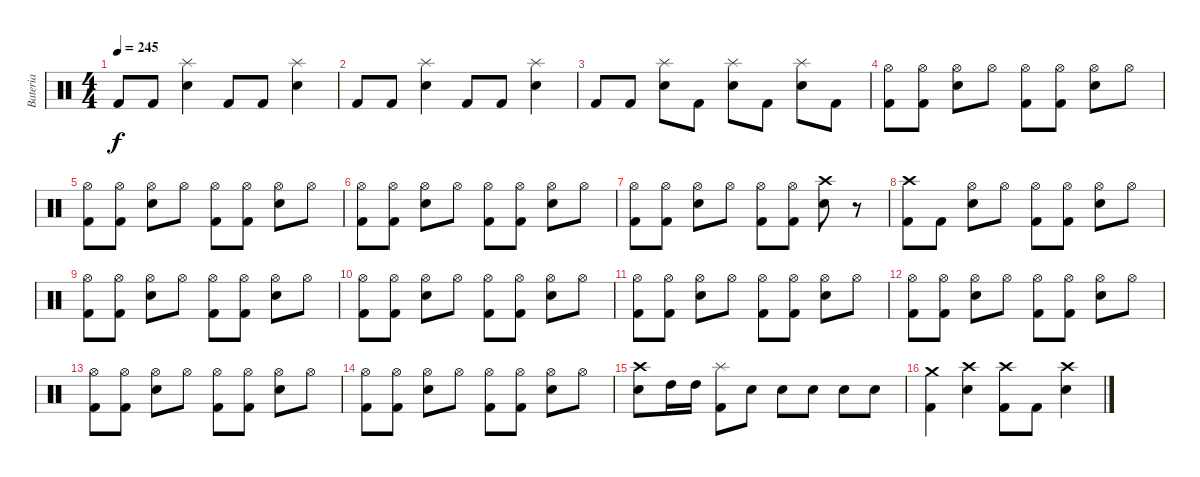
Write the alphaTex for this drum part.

\track ("Bateria" "Bateria") {instrument percussion}
\staff {score}
\articulation defaults
\ts (4 4)
\tempo 245
\clef neutral
\ks c "Kick (hit) 2".8{dy f} "Kick (hit) 2".8
("Splash (hit)" "Electric Snare (hit)").4 "Kick (hit) 2".8 "Kick (hit) 2".8 ("Splash (hit)" "Electric Snare (hit)").4 |
"Kick (hit) 2".8 "Kick (hit) 2".8 ("Splash (hit)" "Electric Snare (hit)").4 "Kick (hit) 2".8 "Kick (hit) 2".8 ("Splash (hit)" "Electric Snare (hit)").4 |
"Kick (hit) 2".8 "Kick (hit) 2".8 ("Splash (hit)" "Electric Snare (hit)").8 "Kick (hit) 2".8 ("Splash (hit)" "Electric Snare (hit)").8 "Kick (hit) 2".8 ("Splash (hit)" "Electric Snare (hit)").8 "Kick (hit) 2".8 |
("Hi-Hat (open)" "Kick (hit) 2").8 ("Hi-Hat (open)" "Kick (hit) 2").8 ("Hi-Hat (open)" "Electric Snare (hit)").8 "Hi-Hat (open)".8 ("Hi-Hat (open)" "Kick (hit) 2").8 ("Hi-Hat (open)" "Kick (hit) 2").8 ("Hi-Hat (open)" "Electric Snare (hit)").8 "Hi-Hat (open)".8 |
("Hi-Hat (open)" "Kick (hit) 2").8 ("Hi-Hat (open)" "Kick (hit) 2").8 ("Hi-Hat (open)" "Electric Snare (hit)").8 "Hi-Hat (open)".8 ("Hi-Hat (open)" "Kick (hit) 2").8 ("Hi-Hat (open)" "Kick (hit) 2").8 ("Hi-Hat (open)" "Electric Snare (hit)").8 "Hi-Hat (open)".8 |
("Hi-Hat (open)" "Kick (hit) 2").8 ("Hi-Hat (open)" "Kick (hit) 2").8 ("Hi-Hat (open)" "Electric Snare (hit)").8 "Hi-Hat (open)".8 ("Hi-Hat (open)" "Kick (hit) 2").8 ("Hi-Hat (open)" "Kick (hit) 2").8 ("Hi-Hat (open)" "Electric Snare (hit)").8 "Hi-Hat (open)".8 |
("Hi-Hat (open)" "Kick (hit) 2").8 ("Hi-Hat (open)" "Kick (hit) 2").8 ("Hi-Hat (open)" "Electric Snare (hit)").8 "Hi-Hat (open)".8 ("Hi-Hat (open)" "Kick (hit) 2").8 ("Hi-Hat (open)" "Kick (hit) 2").8 ("Crash high (hit)" "Electric Snare (hit)").8 r.8 |
("Crash high (hit)" "Kick (hit) 2").8 "Kick (hit) 2".8 ("Hi-Hat (open)" "Electric Snare (hit)").8 "Hi-Hat (open)".8 ("Hi-Hat (open)" "Kick (hit) 2").8 ("Hi-Hat (open)" "Kick (hit) 2").8 ("Hi-Hat (open)" "Electric Snare (hit)").8 "Hi-Hat (open)".8 |
("Hi-Hat (open)" "Kick (hit) 2").8 ("Hi-Hat (open)" "Kick (hit) 2").8 ("Hi-Hat (open)" "Electric Snare (hit)").8 "Hi-Hat (open)".8 ("Hi-Hat (open)" "Kick (hit) 2").8 ("Hi-Hat (open)" "Kick (hit) 2").8 ("Hi-Hat (open)" "Electric Snare (hit)").8 "Hi-Hat (open)".8 |
("Hi-Hat (open)" "Kick (hit) 2").8 ("Hi-Hat (open)" "Kick (hit) 2").8 ("Hi-Hat (open)" "Electric Snare (hit)").8 "Hi-Hat (open)".8 ("Hi-Hat (open)" "Kick (hit) 2").8 ("Hi-Hat (open)" "Kick (hit) 2").8 ("Hi-Hat (open)" "Electric Snare (hit)").8 "Hi-Hat (open)".8 |
("Hi-Hat (open)" "Kick (hit) 2").8 ("Hi-Hat (open)" "Kick (hit) 2").8 ("Hi-Hat (open)" "Electric Snare (hit)").8 "Hi-Hat (open)".8 ("Hi-Hat (open)" "Kick (hit) 2").8 ("Hi-Hat (open)" "Kick (hit) 2").8 ("Hi-Hat (open)" "Electric Snare (hit)").8 "Hi-Hat (open)".8 |
("Hi-Hat (open)" "Kick (hit) 2").8 ("Hi-Hat (open)" "Kick (hit) 2").8 ("Hi-Hat (open)" "Electric Snare (hit)").8 "Hi-Hat (open)".8 ("Hi-Hat (open)" "Kick (hit) 2").8 ("Hi-Hat (open)" "Kick (hit) 2").8 ("Hi-Hat (open)" "Electric Snare (hit)").8 "Hi-Hat (open)".8 |
("Hi-Hat (open)" "Kick (hit) 2").8 ("Hi-Hat (open)" "Kick (hit) 2").8 ("Hi-Hat (open)" "Electric Snare (hit)").8 "Hi-Hat (open)".8 ("Hi-Hat (open)" "Kick (hit) 2").8 ("Hi-Hat (open)" "Kick (hit) 2").8 ("Hi-Hat (open)" "Electric Snare (hit)").8 "Hi-Hat (open)".8 |
("Hi-Hat (open)" "Kick (hit) 2").8 ("Hi-Hat (open)" "Kick (hit) 2").8 ("Hi-Hat (open)" "Electric Snare (hit)").8 "Hi-Hat (open)".8 ("Hi-Hat (open)" "Kick (hit) 2").8 ("Hi-Hat (open)" "Kick (hit) 2").8 ("Hi-Hat (open)" "Electric Snare (hit)").8 "Hi-Hat (open)".8 |
("Crash high (hit)" "Electric Snare (hit)").8 "High Tom (hit)".16 "High Tom (hit)".16 ("Splash (hit)" "Kick (hit) 2").8 "Electric Snare (hit)".8 "Electric Snare (hit)".8 "Electric Snare (hit)".8 "Electric Snare (hit)".8 "Electric Snare (hit)".8 |
("Crash medium (hit)" "Kick (hit) 2").4 ("Crash high (hit)" "Electric Snare (hit)").4 ("Crash high (hit)" "Kick (hit) 2").8 "Kick (hit) 2".8 ("Crash high (hit)" "Electric Snare (hit)").4
